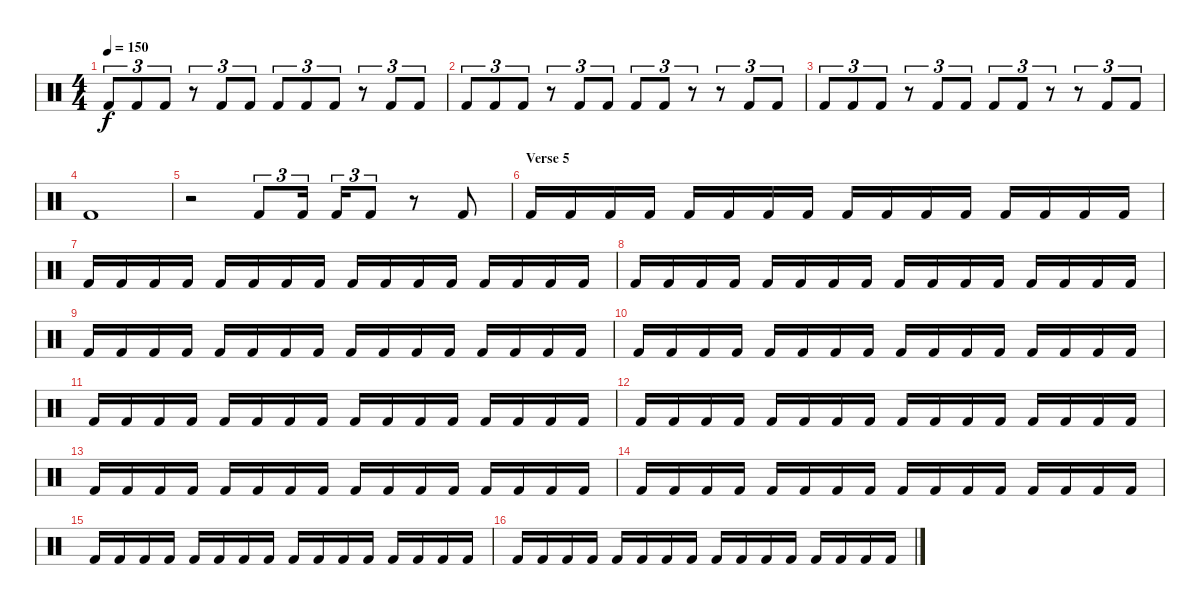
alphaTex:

\track "" {instrument percussion}
\staff {score}
\articulation defaults
\ts (4 4)
\tempo 150
\clef neutral
\ks c "Kick (hit) 2".8{tu (3 2) dy f} "Kick (hit) 2".8{tu (3 2)} "Kick (hit) 2".8{tu (3 2)}
r.8{tu (3 2)} "Kick (hit) 2".8{tu (3 2)} "Kick (hit) 2".8{tu (3 2)} "Kick (hit) 2".8{tu (3 2)} "Kick (hit) 2".8{tu (3 2)} "Kick (hit) 2".8{tu (3 2)} r.8{tu (3 2)} "Kick (hit) 2".8{tu (3 2)} "Kick (hit) 2".8{tu (3 2)} |
"Kick (hit) 2".8{tu (3 2)} "Kick (hit) 2".8{tu (3 2)} "Kick (hit) 2".8{tu (3 2)} r.8{tu (3 2)} "Kick (hit) 2".8{tu (3 2)} "Kick (hit) 2".8{tu (3 2)} "Kick (hit) 2".8{tu (3 2)} "Kick (hit) 2".8{tu (3 2)} r.8{tu (3 2)} r.8{tu (3 2)} "Kick (hit) 2".8{tu (3 2)} "Kick (hit) 2".8{tu (3 2)} |
"Kick (hit) 2".8{tu (3 2)} "Kick (hit) 2".8{tu (3 2)} "Kick (hit) 2".8{tu (3 2)} r.8{tu (3 2)} "Kick (hit) 2".8{tu (3 2)} "Kick (hit) 2".8{tu (3 2)} "Kick (hit) 2".8{tu (3 2)} "Kick (hit) 2".8{tu (3 2)} r.8{tu (3 2)} r.8{tu (3 2)} "Kick (hit) 2".8{tu (3 2)} "Kick (hit) 2".8{tu (3 2)} |
"Kick (hit) 2".1 |
r.2 "Kick (hit) 2".8{tu (3 2)} "Kick (hit) 2".16{tu (3 2)} "Kick (hit) 2".16{tu (3 2)} "Kick (hit) 2".8{tu (3 2)} r.8 "Kick (hit) 2".8 |
\section ("" "Verse 5")
"Kick (hit) 2".16 "Kick (hit) 2".16 "Kick (hit) 2".16 "Kick (hit) 2".16 "Kick (hit) 2".16 "Kick (hit) 2".16 "Kick (hit) 2".16 "Kick (hit) 2".16 "Kick (hit) 2".16 "Kick (hit) 2".16 "Kick (hit) 2".16 "Kick (hit) 2".16 "Kick (hit) 2".16 "Kick (hit) 2".16 "Kick (hit) 2".16 "Kick (hit) 2".16 |
"Kick (hit) 2".16 "Kick (hit) 2".16 "Kick (hit) 2".16 "Kick (hit) 2".16 "Kick (hit) 2".16 "Kick (hit) 2".16 "Kick (hit) 2".16 "Kick (hit) 2".16 "Kick (hit) 2".16 "Kick (hit) 2".16 "Kick (hit) 2".16 "Kick (hit) 2".16 "Kick (hit) 2".16 "Kick (hit) 2".16 "Kick (hit) 2".16 "Kick (hit) 2".16 |
"Kick (hit) 2".16 "Kick (hit) 2".16 "Kick (hit) 2".16 "Kick (hit) 2".16 "Kick (hit) 2".16 "Kick (hit) 2".16 "Kick (hit) 2".16 "Kick (hit) 2".16 "Kick (hit) 2".16 "Kick (hit) 2".16 "Kick (hit) 2".16 "Kick (hit) 2".16 "Kick (hit) 2".16 "Kick (hit) 2".16 "Kick (hit) 2".16 "Kick (hit) 2".16 |
"Kick (hit) 2".16 "Kick (hit) 2".16 "Kick (hit) 2".16 "Kick (hit) 2".16 "Kick (hit) 2".16 "Kick (hit) 2".16 "Kick (hit) 2".16 "Kick (hit) 2".16 "Kick (hit) 2".16 "Kick (hit) 2".16 "Kick (hit) 2".16 "Kick (hit) 2".16 "Kick (hit) 2".16 "Kick (hit) 2".16 "Kick (hit) 2".16 "Kick (hit) 2".16 |
"Kick (hit) 2".16 "Kick (hit) 2".16 "Kick (hit) 2".16 "Kick (hit) 2".16 "Kick (hit) 2".16 "Kick (hit) 2".16 "Kick (hit) 2".16 "Kick (hit) 2".16 "Kick (hit) 2".16 "Kick (hit) 2".16 "Kick (hit) 2".16 "Kick (hit) 2".16 "Kick (hit) 2".16 "Kick (hit) 2".16 "Kick (hit) 2".16 "Kick (hit) 2".16 |
"Kick (hit) 2".16 "Kick (hit) 2".16 "Kick (hit) 2".16 "Kick (hit) 2".16 "Kick (hit) 2".16 "Kick (hit) 2".16 "Kick (hit) 2".16 "Kick (hit) 2".16 "Kick (hit) 2".16 "Kick (hit) 2".16 "Kick (hit) 2".16 "Kick (hit) 2".16 "Kick (hit) 2".16 "Kick (hit) 2".16 "Kick (hit) 2".16 "Kick (hit) 2".16 |
"Kick (hit) 2".16 "Kick (hit) 2".16 "Kick (hit) 2".16 "Kick (hit) 2".16 "Kick (hit) 2".16 "Kick (hit) 2".16 "Kick (hit) 2".16 "Kick (hit) 2".16 "Kick (hit) 2".16 "Kick (hit) 2".16 "Kick (hit) 2".16 "Kick (hit) 2".16 "Kick (hit) 2".16 "Kick (hit) 2".16 "Kick (hit) 2".16 "Kick (hit) 2".16 |
"Kick (hit) 2".16 "Kick (hit) 2".16 "Kick (hit) 2".16 "Kick (hit) 2".16 "Kick (hit) 2".16 "Kick (hit) 2".16 "Kick (hit) 2".16 "Kick (hit) 2".16 "Kick (hit) 2".16 "Kick (hit) 2".16 "Kick (hit) 2".16 "Kick (hit) 2".16 "Kick (hit) 2".16 "Kick (hit) 2".16 "Kick (hit) 2".16 "Kick (hit) 2".16 |
"Kick (hit) 2".16 "Kick (hit) 2".16 "Kick (hit) 2".16 "Kick (hit) 2".16 "Kick (hit) 2".16 "Kick (hit) 2".16 "Kick (hit) 2".16 "Kick (hit) 2".16 "Kick (hit) 2".16 "Kick (hit) 2".16 "Kick (hit) 2".16 "Kick (hit) 2".16 "Kick (hit) 2".16 "Kick (hit) 2".16 "Kick (hit) 2".16 "Kick (hit) 2".16 |
"Kick (hit) 2".16 "Kick (hit) 2".16 "Kick (hit) 2".16 "Kick (hit) 2".16 "Kick (hit) 2".16 "Kick (hit) 2".16 "Kick (hit) 2".16 "Kick (hit) 2".16 "Kick (hit) 2".16 "Kick (hit) 2".16 "Kick (hit) 2".16 "Kick (hit) 2".16 "Kick (hit) 2".16 "Kick (hit) 2".16 "Kick (hit) 2".16 "Kick (hit) 2".16 |
"Kick (hit) 2".16 "Kick (hit) 2".16 "Kick (hit) 2".16 "Kick (hit) 2".16 "Kick (hit) 2".16 "Kick (hit) 2".16 "Kick (hit) 2".16 "Kick (hit) 2".16 "Kick (hit) 2".16 "Kick (hit) 2".16 "Kick (hit) 2".16 "Kick (hit) 2".16 "Kick (hit) 2".16 "Kick (hit) 2".16 "Kick (hit) 2".16 "Kick (hit) 2".16
